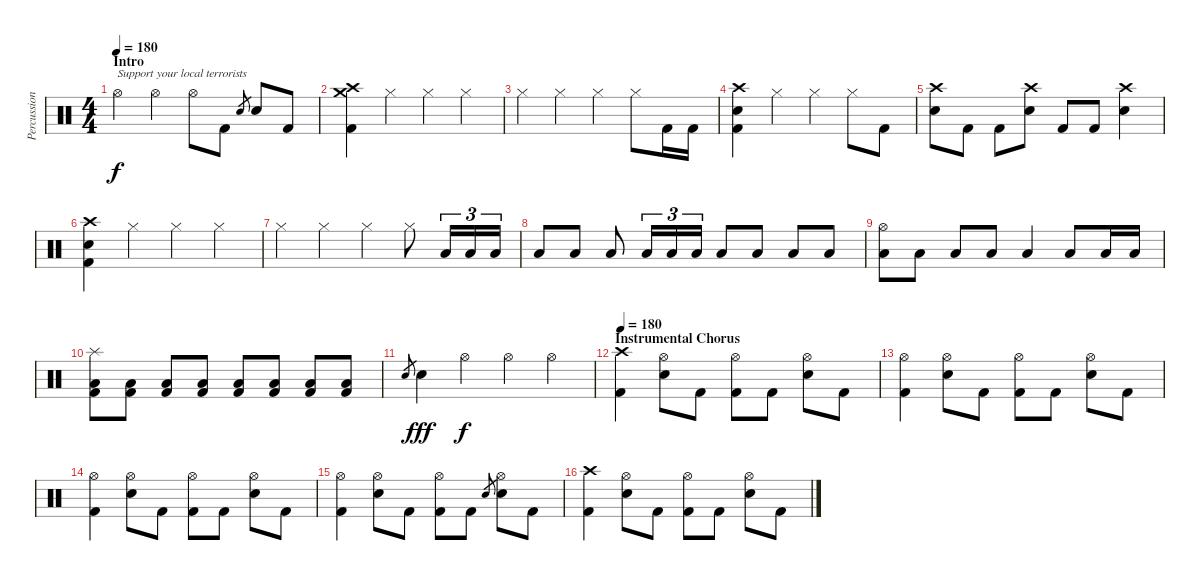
\track ("Percussion" "Percussion") {instrument percussion}
\staff {score}
\articulation defaults
\ts (4 4)
\section ("" "Intro")
\tempo 180
\tempo 190
\tempo 180
\clef neutral
\ks c "Hi-Hat (open)".4{txt "Support your local terrorists" dy f} "Hi-Hat (open)".4 "Hi-Hat (open)".8 "Kick (hit) 2".8 "Electric Snare (hit)".8{gr} "Electric Snare (hit)".8 "Kick (hit) 2".8
|
("Crash medium (hit)" "Crash high (hit)" "Kick (hit) 2").4 "Hi-Hat (closed)".4 "Hi-Hat (closed)".4 "Hi-Hat (closed)".4 |
"Hi-Hat (closed)".4 "Hi-Hat (closed)".4 "Hi-Hat (closed)".4 "Hi-Hat (closed)".8 "Kick (hit) 2".16 "Kick (hit) 2".16 |
("Crash high (hit)" "Electric Snare (hit)" "Kick (hit) 2").4 "Hi-Hat (closed)".4 "Hi-Hat (closed)".4 "Hi-Hat (closed)".8 "Kick (hit) 2".8 |
("Crash high (hit)" "Electric Snare (hit)").8 "Kick (hit) 2".8 "Kick (hit) 2".8 ("Crash high (hit)" "Electric Snare (hit)").8 "Kick (hit) 2".8 "Kick (hit) 2".8 ("Crash high (hit)" "Electric Snare (hit)").4 |
("Crash high (hit)" "Electric Snare (hit)" "Kick (hit) 2").4 "Hi-Hat (closed)".4 "Hi-Hat (closed)".4 "Hi-Hat (closed)".4 |
"Hi-Hat (closed)".4 "Hi-Hat (closed)".4 "Hi-Hat (closed)".4 "Hi-Hat (closed)".8 "Low Tom (hit)".16{tu (3 2)} "Low Tom (hit)".16{tu (3 2)} "Low Tom (hit)".16{tu (3 2)} |
"Low Tom (hit)".8 "Low Tom (hit)".8 "Low Tom (hit)".8 "Low Tom (hit)".16{tu (3 2)} "Low Tom (hit)".16{tu (3 2)} "Low Tom (hit)".16{tu (3 2)} "Low Tom (hit)".8 "Low Tom (hit)".8 "Low Tom (hit)".8 "Low Tom (hit)".8 |
("Hi-Hat (open)" "Low Tom (hit)").8 "Low Tom (hit)".8 "Low Tom (hit)".8 "Low Tom (hit)".8 "Low Tom (hit)".4 "Low Tom (hit)".8 "Low Tom (hit)".16 "Low Tom (hit)".16 |
("Splash (hit)" "Low Tom (hit)" "Kick (hit) 2").8 ("Low Tom (hit)" "Kick (hit) 2").8 ("Low Tom (hit)" "Kick (hit) 2").8 ("Low Tom (hit)" "Kick (hit) 2").8 ("Low Tom (hit)" "Kick (hit) 2").8 ("Low Tom (hit)" "Kick (hit) 2").8 ("Low Tom (hit)" "Kick (hit) 2").8 ("Low Tom (hit)" "Kick (hit) 2").8 |
"Electric Snare (hit)".8{gr} "Electric Snare (hit)".4{dy fff} "Hi-Hat (open)".4{dy f} "Hi-Hat (open)".4 "Hi-Hat (open)".4 |
\section ("" "Instrumental Chorus")
\tempo 180
("Crash high (hit)" "Kick (hit) 2").4 ("Hi-Hat (open)" "Electric Snare (hit)").8 "Kick (hit) 2".8 ("Hi-Hat (open)" "Kick (hit) 2").8 "Kick (hit) 2".8 ("Hi-Hat (open)" "Electric Snare (hit)").8 "Kick (hit) 2".8 |
("Hi-Hat (open)" "Kick (hit) 2").4 ("Hi-Hat (open)" "Electric Snare (hit)").8 "Kick (hit) 2".8 ("Hi-Hat (open)" "Kick (hit) 2").8 "Kick (hit) 2".8 ("Hi-Hat (open)" "Electric Snare (hit)").8 "Kick (hit) 2".8 |
("Hi-Hat (open)" "Kick (hit) 2").4 ("Hi-Hat (open)" "Electric Snare (hit)").8 "Kick (hit) 2".8 ("Hi-Hat (open)" "Kick (hit) 2").8 "Kick (hit) 2".8 ("Hi-Hat (open)" "Electric Snare (hit)").8 "Kick (hit) 2".8 |
("Hi-Hat (open)" "Kick (hit) 2").4 ("Hi-Hat (open)" "Electric Snare (hit)").8 "Kick (hit) 2".8 ("Hi-Hat (open)" "Kick (hit) 2").8 "Kick (hit) 2".8 "Electric Snare (hit)".8{gr} ("Hi-Hat (open)" "Electric Snare (hit)").8 "Kick (hit) 2".8 |
("Crash high (hit)" "Kick (hit) 2").4 ("Hi-Hat (open)" "Electric Snare (hit)").8 "Kick (hit) 2".8 ("Hi-Hat (open)" "Kick (hit) 2").8 "Kick (hit) 2".8 ("Hi-Hat (open)" "Electric Snare (hit)").8 "Kick (hit) 2".8
